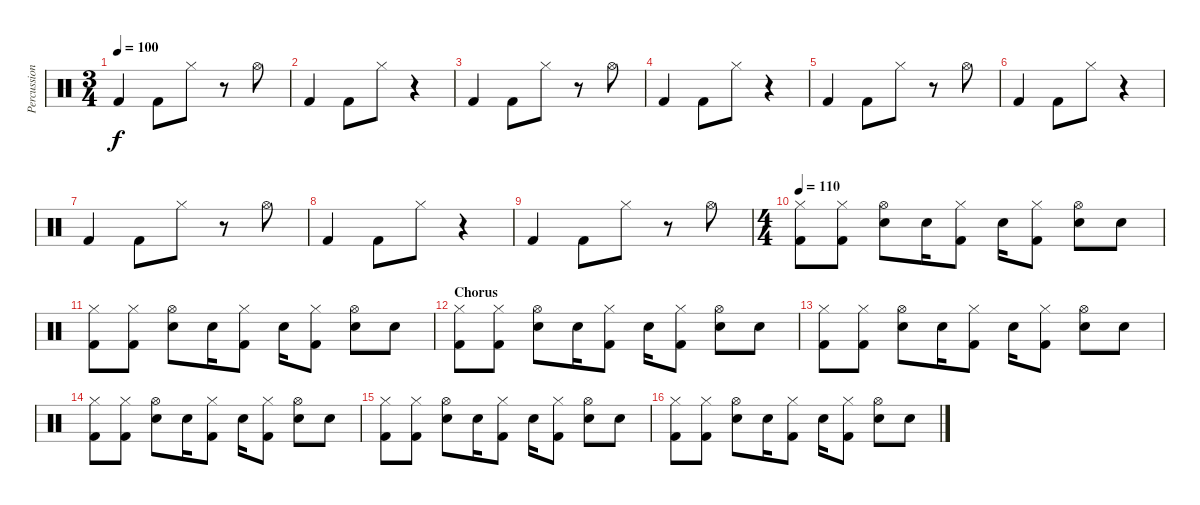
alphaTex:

\track ("Percussion" "Percussion") {instrument percussion}
\staff {score}
\articulation defaults
\ts (3 4)
\tempo 100
\clef neutral
\ks c "Kick (hit) 2".4{dy f} "Kick (hit) 2".8 "Hi-Hat (closed)".8
r.8 "Hi-Hat (open)".8 |
"Kick (hit) 2".4 "Kick (hit) 2".8 "Hi-Hat (closed)".8 r.4 |
"Kick (hit) 2".4 "Kick (hit) 2".8 "Hi-Hat (closed)".8 r.8 "Hi-Hat (open)".8 |
"Kick (hit) 2".4 "Kick (hit) 2".8 "Hi-Hat (closed)".8 r.4 |
"Kick (hit) 2".4 "Kick (hit) 2".8 "Hi-Hat (closed)".8 r.8 "Hi-Hat (open)".8 |
"Kick (hit) 2".4 "Kick (hit) 2".8 "Hi-Hat (closed)".8 r.4 |
"Kick (hit) 2".4 "Kick (hit) 2".8 "Hi-Hat (closed)".8 r.8 "Hi-Hat (open)".8 |
"Kick (hit) 2".4 "Kick (hit) 2".8 "Hi-Hat (closed)".8 r.4 |
"Kick (hit) 2".4 "Kick (hit) 2".8 "Hi-Hat (closed)".8 r.8 "Hi-Hat (open)".8 |
\ts (4 4)
\tempo 110
("Hi-Hat (closed)" "Kick (hit) 2").8 ("Hi-Hat (closed)" "Kick (hit) 2").8 ("Hi-Hat (open)" "Electric Snare (hit)").8 "Electric Snare (hit)".16 ("Hi-Hat (closed)" "Kick (hit) 2").8 "Electric Snare (hit)".16 ("Hi-Hat (closed)" "Kick (hit) 2").8 ("Hi-Hat (open)" "Electric Snare (hit)").8 "Electric Snare (hit)".8 |
("Hi-Hat (closed)" "Kick (hit) 2").8 ("Hi-Hat (closed)" "Kick (hit) 2").8 ("Hi-Hat (open)" "Electric Snare (hit)").8 "Electric Snare (hit)".16 ("Hi-Hat (closed)" "Kick (hit) 2").8 "Electric Snare (hit)".16 ("Hi-Hat (closed)" "Kick (hit) 2").8 ("Hi-Hat (open)" "Electric Snare (hit)").8 "Electric Snare (hit)".8 |
\section ("" "Chorus")
("Hi-Hat (closed)" "Kick (hit) 2").8 ("Hi-Hat (closed)" "Kick (hit) 2").8 ("Hi-Hat (open)" "Electric Snare (hit)").8 "Electric Snare (hit)".16 ("Hi-Hat (closed)" "Kick (hit) 2").8 "Electric Snare (hit)".16 ("Hi-Hat (closed)" "Kick (hit) 2").8 ("Hi-Hat (open)" "Electric Snare (hit)").8 "Electric Snare (hit)".8 |
("Hi-Hat (closed)" "Kick (hit) 2").8 ("Hi-Hat (closed)" "Kick (hit) 2").8 ("Hi-Hat (open)" "Electric Snare (hit)").8 "Electric Snare (hit)".16 ("Hi-Hat (closed)" "Kick (hit) 2").8 "Electric Snare (hit)".16 ("Hi-Hat (closed)" "Kick (hit) 2").8 ("Hi-Hat (open)" "Electric Snare (hit)").8 "Electric Snare (hit)".8 |
("Hi-Hat (closed)" "Kick (hit) 2").8 ("Hi-Hat (closed)" "Kick (hit) 2").8 ("Hi-Hat (open)" "Electric Snare (hit)").8 "Electric Snare (hit)".16 ("Hi-Hat (closed)" "Kick (hit) 2").8 "Electric Snare (hit)".16 ("Hi-Hat (closed)" "Kick (hit) 2").8 ("Hi-Hat (open)" "Electric Snare (hit)").8 "Electric Snare (hit)".8 |
("Hi-Hat (closed)" "Kick (hit) 2").8 ("Hi-Hat (closed)" "Kick (hit) 2").8 ("Hi-Hat (open)" "Electric Snare (hit)").8 "Electric Snare (hit)".16 ("Hi-Hat (closed)" "Kick (hit) 2").8 "Electric Snare (hit)".16 ("Hi-Hat (closed)" "Kick (hit) 2").8 ("Hi-Hat (open)" "Electric Snare (hit)").8 "Electric Snare (hit)".8 |
("Hi-Hat (closed)" "Kick (hit) 2").8 ("Hi-Hat (closed)" "Kick (hit) 2").8 ("Hi-Hat (open)" "Electric Snare (hit)").8 "Electric Snare (hit)".16 ("Hi-Hat (closed)" "Kick (hit) 2").8 "Electric Snare (hit)".16 ("Hi-Hat (closed)" "Kick (hit) 2").8 ("Hi-Hat (open)" "Electric Snare (hit)").8 "Electric Snare (hit)".8
